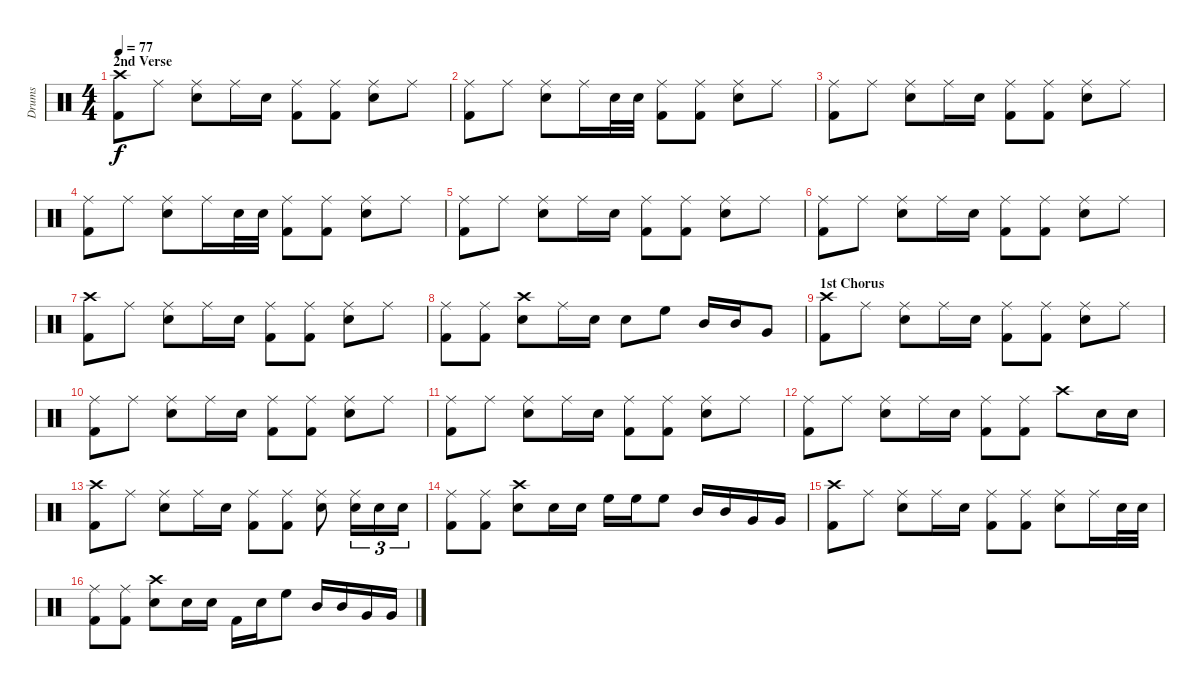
\track ("Drums" "Drums") {instrument percussion}
\staff {score}
\articulation defaults
\ts (4 4)
\section ("" "2nd Verse")
\tempo 77
\clef neutral
\ks c
("Crash high (hit)" "Kick (hit) 2").8{dy f} "Ride (middle)".8 ("Ride (middle)" "Snare (hit) 2").8 "Ride (middle)".16 "Snare (hit) 2".16 ("Ride (middle)" "Kick (hit) 2").8 ("Ride (middle)" "Kick (hit) 2").8 ("Ride (middle)" "Snare (hit) 2").8 "Ride (middle)".8 |
("Ride (middle)" "Kick (hit) 2").8 "Ride (middle)".8 ("Ride (middle)" "Snare (hit) 2").8 "Ride (middle)".16 "Snare (hit) 2".32 "Snare (hit) 2".32 ("Ride (middle)" "Kick (hit) 2").8 ("Ride (middle)" "Kick (hit) 2").8 ("Ride (middle)" "Snare (hit) 2").8 "Ride (middle)".8 |
("Ride (middle)" "Kick (hit) 2").8 "Ride (middle)".8 ("Ride (middle)" "Snare (hit) 2").8 "Ride (middle)".16 "Snare (hit) 2".16 ("Ride (middle)" "Kick (hit) 2").8 ("Ride (middle)" "Kick (hit) 2").8 ("Ride (middle)" "Snare (hit) 2").8 "Ride (middle)".8 |
("Ride (middle)" "Kick (hit) 2").8 "Ride (middle)".8 ("Ride (middle)" "Snare (hit) 2").8 "Ride (middle)".16 "Snare (hit) 2".32 "Snare (hit) 2".32 ("Ride (middle)" "Kick (hit) 2").8 ("Ride (middle)" "Kick (hit) 2").8 ("Ride (middle)" "Snare (hit) 2").8 "Ride (middle)".8 |
("Ride (middle)" "Kick (hit) 2").8 "Ride (middle)".8 ("Ride (middle)" "Snare (hit) 2").8 "Ride (middle)".16 "Snare (hit) 2".16 ("Ride (middle)" "Kick (hit) 2").8 ("Ride (middle)" "Kick (hit) 2").8 ("Ride (middle)" "Snare (hit) 2").8 "Ride (middle)".8 |
("Ride (middle)" "Kick (hit) 2").8 "Ride (middle)".8 ("Ride (middle)" "Snare (hit) 2").8 "Ride (middle)".16 "Snare (hit) 2".16 ("Ride (middle)" "Kick (hit) 2").8 ("Ride (middle)" "Kick (hit) 2").8 ("Ride (middle)" "Snare (hit) 2").8 "Ride (middle)".8 |
("Crash high (hit)" "Kick (hit) 2").8 "Ride (middle)".8 ("Ride (middle)" "Snare (hit) 2").8 "Ride (middle)".16 "Snare (hit) 2".16 ("Ride (middle)" "Kick (hit) 2").8 ("Ride (middle)" "Kick (hit) 2").8 ("Ride (middle)" "Snare (hit) 2").8 "Ride (middle)".8 |
("Ride (middle)" "Kick (hit) 2").8 ("Ride (middle)" "Kick (hit) 2").8 ("Crash high (hit)" "Snare (hit) 2").8 "Ride (middle)".16 "Snare (hit) 2".16 "Snare (hit) 2".8 "High Floor Tom (hit)".8 "Mid Tom (hit)".16 "Mid Tom (hit)".16 "Very Low Tom (hit)".8 |
\section ("" "1st Chorus")
("Crash high (hit)" "Kick (hit) 2").8 "Ride (middle)".8 ("Ride (middle)" "Snare (hit) 2").8 "Ride (middle)".16 "Snare (hit) 2".16 ("Ride (middle)" "Kick (hit) 2").8 ("Ride (middle)" "Kick (hit) 2").8 ("Ride (middle)" "Snare (hit) 2").8 "Ride (middle)".8 |
("Ride (middle)" "Kick (hit) 2").8 "Ride (middle)".8 ("Ride (middle)" "Snare (hit) 2").8 "Ride (middle)".16 "Snare (hit) 2".16 ("Ride (middle)" "Kick (hit) 2").8 ("Ride (middle)" "Kick (hit) 2").8 ("Ride (middle)" "Snare (hit) 2").8 "Ride (middle)".8 |
("Ride (middle)" "Kick (hit) 2").8 "Ride (middle)".8 ("Ride (middle)" "Snare (hit) 2").8 "Ride (middle)".16 "Snare (hit) 2".16 ("Ride (middle)" "Kick (hit) 2").8 ("Ride (middle)" "Kick (hit) 2").8 ("Ride (middle)" "Snare (hit) 2").8 "Ride (middle)".8 |
("Ride (middle)" "Kick (hit) 2").8 "Ride (middle)".8 ("Ride (middle)" "Snare (hit) 2").8 "Ride (middle)".16 "Snare (hit) 2".16 ("Ride (middle)" "Kick (hit) 2").8 ("Ride (middle)" "Kick (hit) 2").8 "Crash high (hit)".8 "Snare (hit) 2".16 "Snare (hit) 2".16 |
("Crash high (hit)" "Kick (hit) 2").8 "Ride (middle)".8 ("Ride (middle)" "Snare (hit) 2").8 "Ride (middle)".16 "Snare (hit) 2".16 ("Ride (middle)" "Kick (hit) 2").8 ("Ride (middle)" "Kick (hit) 2").8 ("Ride (middle)" "Snare (hit) 2").8 ("Ride (middle)" "Snare (hit) 2").16{tu (3 2)} "Snare (hit) 2".16{tu (3 2)} "Snare (hit) 2".16{tu (3 2)} |
("Ride (middle)" "Kick (hit) 2").8 ("Ride (middle)" "Kick (hit) 2").8 ("Crash high (hit)" "Snare (hit) 2").8 "Snare (hit) 2".16 "Snare (hit) 2".16 "High Floor Tom (hit)".16 "High Floor Tom (hit)".16 "High Floor Tom (hit)".8 "Mid Tom (hit)".16 "Mid Tom (hit)".16 "Very Low Tom (hit)".16 "Very Low Tom (hit)".16 |
("Crash high (hit)" "Kick (hit) 2").8 "Ride (middle)".8 ("Ride (middle)" "Snare (hit) 2").8 "Ride (middle)".16 "Snare (hit) 2".16 ("Ride (middle)" "Kick (hit) 2").8 ("Ride (middle)" "Kick (hit) 2").8 ("Ride (middle)" "Snare (hit) 2").8 "Ride (middle)".16 "Snare (hit) 2".32 "Snare (hit) 2".32 |
("Ride (middle)" "Kick (hit) 2").8 ("Ride (middle)" "Kick (hit) 2").8 ("Crash high (hit)" "Snare (hit) 2").8 "Snare (hit) 2".16 "Snare (hit) 2".16 "Kick (hit) 2".16 "Snare (hit) 2".16 "High Floor Tom (hit)".8 "Mid Tom (hit)".16 "Mid Tom (hit)".16 "Very Low Tom (hit)".16 "Very Low Tom (hit)".16
